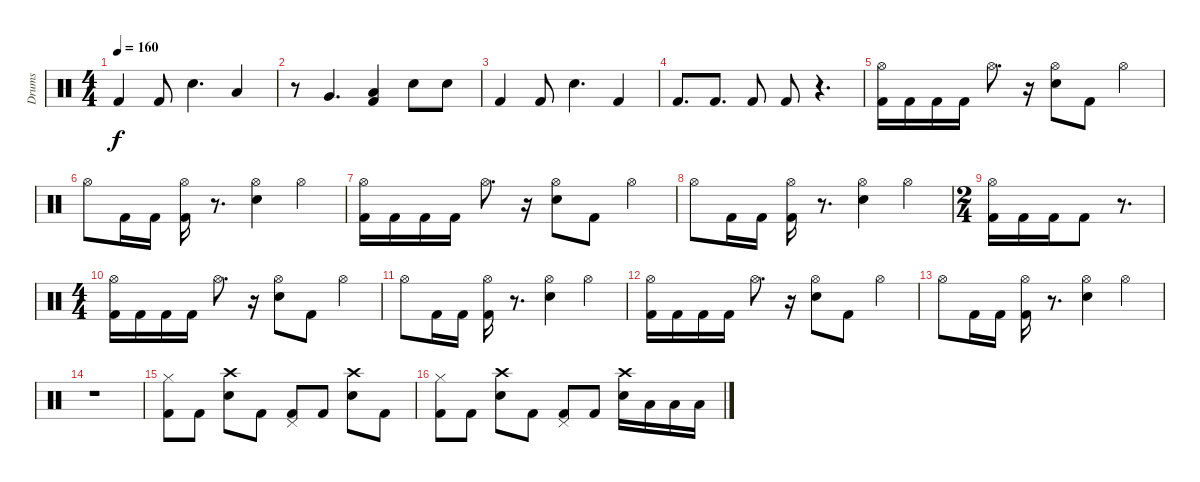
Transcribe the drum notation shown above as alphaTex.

\track ("Drums" "Drums") {instrument percussion}
\staff {score}
\articulation defaults
\ts (4 4)
\tempo 160
\clef neutral
\ks c "Kick (hit) 2".4{dy f} "Kick (hit) 2".8 "Snare (hit) 2".4{d} "Low Tom (hit)".4
|
r.8 "Very Low Tom (hit)".4{d} ("Low Floor Tom (hit)" "Kick (hit) 2").4 "Snare (hit) 2".8 "Snare (hit) 2".8 |
"Kick (hit) 2".4 "Kick (hit) 2".8 "Snare (hit) 2".4{d} "Kick (hit) 2".4 |
"Kick (hit) 2".8{d} "Kick (hit) 2".8{d} "Kick (hit) 2".8 "Kick (hit) 2".8 r.4{d} |
("Hi-Hat (open)" "Kick (hit) 2").16 "Kick (hit) 2".16 "Kick (hit) 2".16 "Kick (hit) 2".16 "Hi-Hat (open)".8{d} r.16 ("Hi-Hat (open)" "Snare (hit) 2").8 "Kick (hit) 2".8 "Hi-Hat (open)".4 |
"Hi-Hat (open)".8 "Kick (hit) 2".16 "Kick (hit) 2".16 ("Hi-Hat (open)" "Kick (hit) 2").16 r.8{d} ("Hi-Hat (open)" "Snare (hit) 2").4 "Hi-Hat (open)".4 |
("Hi-Hat (open)" "Kick (hit) 2").16 "Kick (hit) 2".16 "Kick (hit) 2".16 "Kick (hit) 2".16 "Hi-Hat (open)".8{d} r.16 ("Hi-Hat (open)" "Snare (hit) 2").8 "Kick (hit) 2".8 "Hi-Hat (open)".4 |
"Hi-Hat (open)".8 "Kick (hit) 2".16 "Kick (hit) 2".16 ("Hi-Hat (open)" "Kick (hit) 2").16 r.8{d} ("Hi-Hat (open)" "Snare (hit) 2").4 "Hi-Hat (open)".4 |
\ts (2 4)
("Hi-Hat (open)" "Kick (hit) 2").16 "Kick (hit) 2".16 "Kick (hit) 2".16 "Kick (hit) 2".8 r.8{d} |
\ts (4 4)
("Hi-Hat (open)" "Kick (hit) 2").16 "Kick (hit) 2".16 "Kick (hit) 2".16 "Kick (hit) 2".16 "Hi-Hat (open)".8{d} r.16 ("Hi-Hat (open)" "Snare (hit) 2").8 "Kick (hit) 2".8 "Hi-Hat (open)".4 |
"Hi-Hat (open)".8 "Kick (hit) 2".16 "Kick (hit) 2".16 ("Hi-Hat (open)" "Kick (hit) 2").16 r.8{d} ("Hi-Hat (open)" "Snare (hit) 2").4 "Hi-Hat (open)".4 |
("Hi-Hat (open)" "Kick (hit) 2").16 "Kick (hit) 2".16 "Kick (hit) 2".16 "Kick (hit) 2".16 "Hi-Hat (open)".8{d} r.16 ("Hi-Hat (open)" "Snare (hit) 2").8 "Kick (hit) 2".8 "Hi-Hat (open)".4 |
"Hi-Hat (open)".8 "Kick (hit) 2".16 "Kick (hit) 2".16 ("Hi-Hat (open)" "Kick (hit) 2").16 r.8{d} ("Hi-Hat (open)" "Snare (hit) 2").4 "Hi-Hat (open)".4 |
r.1 |
("Hi-Hat (closed)" "Kick (hit) 2").8 "Kick (hit) 2".8 ("Crash high (hit)" "Snare (hit) 2").8 "Kick (hit) 2".8 ("Pedal Hi-Hat (hit)" "Kick (hit) 2").8 "Kick (hit) 2".8 ("Crash high (hit)" "Snare (hit) 2").8 "Kick (hit) 2".8 |
("Hi-Hat (closed)" "Kick (hit) 2").8 "Kick (hit) 2".8 ("Crash high (hit)" "Snare (hit) 2").8 "Kick (hit) 2".8 ("Pedal Hi-Hat (hit)" "Kick (hit) 2").8 "Kick (hit) 2".8 ("Crash high (hit)" "Snare (hit) 2").16 "Low Tom (hit)".16 "Low Tom (hit)".16 "Low Tom (hit)".16
